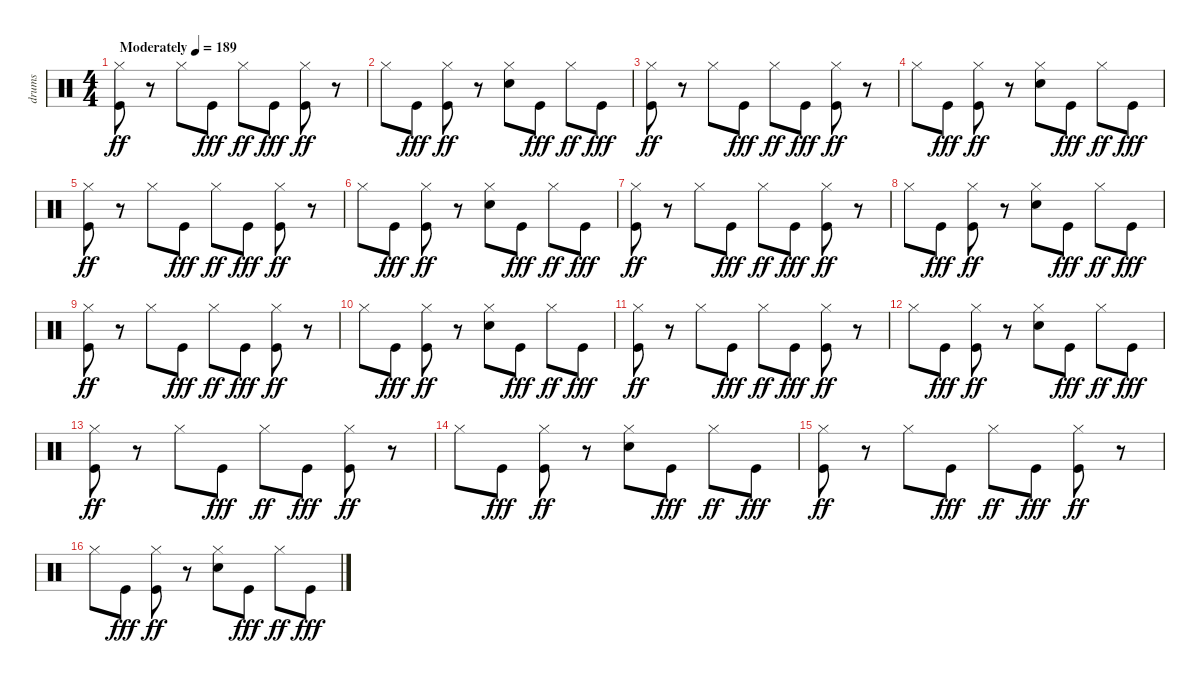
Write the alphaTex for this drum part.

\track ("drums" "drums") {instrument percussion}
\staff {score}
\articulation defaults
\ts (4 4)
\tempo (189 "Moderately")
\clef neutral
\ks c
("Kick (hit)" "Hi-Hat (closed)").8{dy ff} r.8 "Hi-Hat (closed)".8 "Kick (hit)".8{dy fff} "Hi-Hat (closed)".8{dy ff} "Kick (hit)".8{dy fff} ("Kick (hit)" "Hi-Hat (closed)").8{dy ff} r.8 |
"Hi-Hat (closed)".8 "Kick (hit)".8{dy fff} ("Kick (hit)" "Hi-Hat (closed)").8{dy ff} r.8 ("Snare (hit) 2" "Hi-Hat (closed)").8 "Kick (hit)".8{dy fff} "Hi-Hat (closed)".8{dy ff} "Kick (hit)".8{dy fff} |
("Kick (hit)" "Hi-Hat (closed)").8{dy ff} r.8 "Hi-Hat (closed)".8 "Kick (hit)".8{dy fff} "Hi-Hat (closed)".8{dy ff} "Kick (hit)".8{dy fff} ("Kick (hit)" "Hi-Hat (closed)").8{dy ff} r.8 |
"Hi-Hat (closed)".8 "Kick (hit)".8{dy fff} ("Kick (hit)" "Hi-Hat (closed)").8{dy ff} r.8 ("Snare (hit) 2" "Hi-Hat (closed)").8 "Kick (hit)".8{dy fff} "Hi-Hat (closed)".8{dy ff} "Kick (hit)".8{dy fff} |
("Kick (hit)" "Hi-Hat (closed)").8{dy ff} r.8 "Hi-Hat (closed)".8 "Kick (hit)".8{dy fff} "Hi-Hat (closed)".8{dy ff} "Kick (hit)".8{dy fff} ("Kick (hit)" "Hi-Hat (closed)").8{dy ff} r.8 |
"Hi-Hat (closed)".8 "Kick (hit)".8{dy fff} ("Kick (hit)" "Hi-Hat (closed)").8{dy ff} r.8 ("Snare (hit) 2" "Hi-Hat (closed)").8 "Kick (hit)".8{dy fff} "Hi-Hat (closed)".8{dy ff} "Kick (hit)".8{dy fff} |
("Kick (hit)" "Hi-Hat (closed)").8{dy ff} r.8 "Hi-Hat (closed)".8 "Kick (hit)".8{dy fff} "Hi-Hat (closed)".8{dy ff} "Kick (hit)".8{dy fff} ("Kick (hit)" "Hi-Hat (closed)").8{dy ff} r.8 |
"Hi-Hat (closed)".8 "Kick (hit)".8{dy fff} ("Kick (hit)" "Hi-Hat (closed)").8{dy ff} r.8 ("Snare (hit) 2" "Hi-Hat (closed)").8 "Kick (hit)".8{dy fff} "Hi-Hat (closed)".8{dy ff} "Kick (hit)".8{dy fff} |
("Kick (hit)" "Hi-Hat (closed)").8{dy ff} r.8 "Hi-Hat (closed)".8 "Kick (hit)".8{dy fff} "Hi-Hat (closed)".8{dy ff} "Kick (hit)".8{dy fff} ("Kick (hit)" "Hi-Hat (closed)").8{dy ff} r.8 |
"Hi-Hat (closed)".8 "Kick (hit)".8{dy fff} ("Kick (hit)" "Hi-Hat (closed)").8{dy ff} r.8 ("Snare (hit) 2" "Hi-Hat (closed)").8 "Kick (hit)".8{dy fff} "Hi-Hat (closed)".8{dy ff} "Kick (hit)".8{dy fff} |
("Kick (hit)" "Hi-Hat (closed)").8{dy ff} r.8 "Hi-Hat (closed)".8 "Kick (hit)".8{dy fff} "Hi-Hat (closed)".8{dy ff} "Kick (hit)".8{dy fff} ("Kick (hit)" "Hi-Hat (closed)").8{dy ff} r.8 |
"Hi-Hat (closed)".8 "Kick (hit)".8{dy fff} ("Kick (hit)" "Hi-Hat (closed)").8{dy ff} r.8 ("Snare (hit) 2" "Hi-Hat (closed)").8 "Kick (hit)".8{dy fff} "Hi-Hat (closed)".8{dy ff} "Kick (hit)".8{dy fff} |
("Kick (hit)" "Hi-Hat (closed)").8{dy ff} r.8 "Hi-Hat (closed)".8 "Kick (hit)".8{dy fff} "Hi-Hat (closed)".8{dy ff} "Kick (hit)".8{dy fff} ("Kick (hit)" "Hi-Hat (closed)").8{dy ff} r.8 |
"Hi-Hat (closed)".8 "Kick (hit)".8{dy fff} ("Kick (hit)" "Hi-Hat (closed)").8{dy ff} r.8 ("Snare (hit) 2" "Hi-Hat (closed)").8 "Kick (hit)".8{dy fff} "Hi-Hat (closed)".8{dy ff} "Kick (hit)".8{dy fff} |
("Kick (hit)" "Hi-Hat (closed)").8{dy ff} r.8 "Hi-Hat (closed)".8 "Kick (hit)".8{dy fff} "Hi-Hat (closed)".8{dy ff} "Kick (hit)".8{dy fff} ("Kick (hit)" "Hi-Hat (closed)").8{dy ff} r.8 |
"Hi-Hat (closed)".8 "Kick (hit)".8{dy fff} ("Kick (hit)" "Hi-Hat (closed)").8{dy ff} r.8 ("Snare (hit) 2" "Hi-Hat (closed)").8 "Kick (hit)".8{dy fff} "Hi-Hat (closed)".8{dy ff} "Kick (hit)".8{dy fff}
